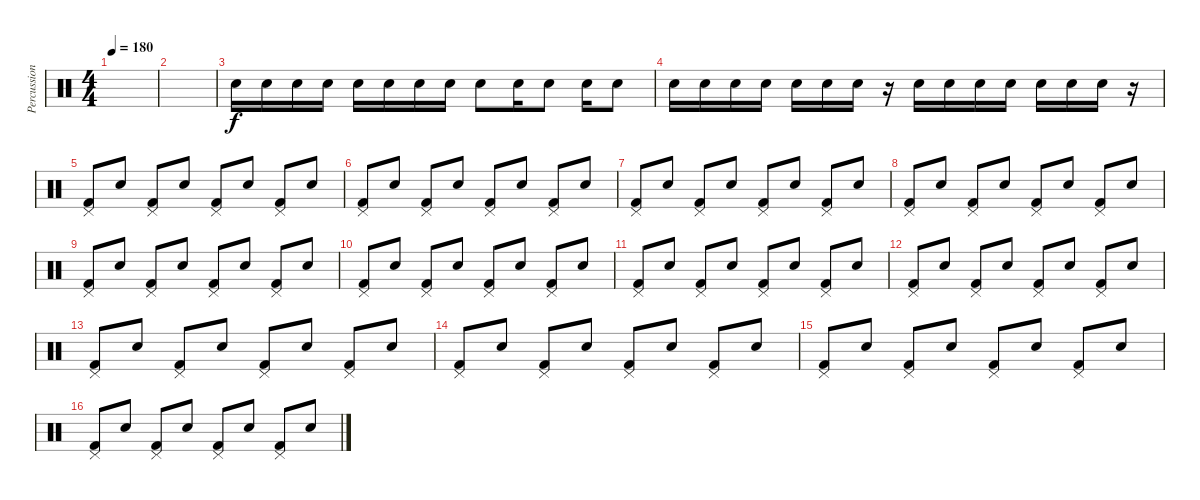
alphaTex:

\track ("Percussion" "Percussion") {instrument percussion}
\staff {score}
\articulation defaults
\ts (4 4)
\tempo 180
\clef neutral
\ks c
|
|
"Snare (hit) 2".16 "Snare (hit) 2".16 "Snare (hit) 2".16 "Snare (hit) 2".16 "Snare (hit) 2".16 "Snare (hit) 2".16 "Snare (hit) 2".16 "Snare (hit) 2".16 "Snare (hit) 2".8 "Snare (hit) 2".16 "Snare (hit) 2".8 "Snare (hit) 2".16 "Snare (hit) 2".8 |
"Snare (hit) 2".16 "Snare (hit) 2".16 "Snare (hit) 2".16 "Snare (hit) 2".16 "Snare (hit) 2".16 "Snare (hit) 2".16 "Snare (hit) 2".16 r.16 "Snare (hit) 2".16 "Snare (hit) 2".16 "Snare (hit) 2".16 "Snare (hit) 2".16 "Snare (hit) 2".16 "Snare (hit) 2".16 "Snare (hit) 2".16 r.16 |
("Pedal Hi-Hat (hit)" "Kick (hit) 2").8 "Snare (hit) 2".8 ("Pedal Hi-Hat (hit)" "Kick (hit) 2").8 "Snare (hit) 2".8 ("Pedal Hi-Hat (hit)" "Kick (hit) 2").8 "Snare (hit) 2".8 ("Pedal Hi-Hat (hit)" "Kick (hit) 2").8 "Snare (hit) 2".8 |
("Pedal Hi-Hat (hit)" "Kick (hit) 2").8 "Snare (hit) 2".8 ("Pedal Hi-Hat (hit)" "Kick (hit) 2").8 "Snare (hit) 2".8 ("Pedal Hi-Hat (hit)" "Kick (hit) 2").8 "Snare (hit) 2".8 ("Pedal Hi-Hat (hit)" "Kick (hit) 2").8 "Snare (hit) 2".8 |
("Pedal Hi-Hat (hit)" "Kick (hit) 2").8 "Snare (hit) 2".8 ("Pedal Hi-Hat (hit)" "Kick (hit) 2").8 "Snare (hit) 2".8 ("Pedal Hi-Hat (hit)" "Kick (hit) 2").8 "Snare (hit) 2".8 ("Pedal Hi-Hat (hit)" "Kick (hit) 2").8 "Snare (hit) 2".8 |
("Pedal Hi-Hat (hit)" "Kick (hit) 2").8 "Snare (hit) 2".8 ("Pedal Hi-Hat (hit)" "Kick (hit) 2").8 "Snare (hit) 2".8 ("Pedal Hi-Hat (hit)" "Kick (hit) 2").8 "Snare (hit) 2".8 ("Pedal Hi-Hat (hit)" "Kick (hit) 2").8 "Snare (hit) 2".8 |
("Pedal Hi-Hat (hit)" "Kick (hit) 2").8 "Snare (hit) 2".8 ("Pedal Hi-Hat (hit)" "Kick (hit) 2").8 "Snare (hit) 2".8 ("Pedal Hi-Hat (hit)" "Kick (hit) 2").8 "Snare (hit) 2".8 ("Pedal Hi-Hat (hit)" "Kick (hit) 2").8 "Snare (hit) 2".8 |
("Pedal Hi-Hat (hit)" "Kick (hit) 2").8 "Snare (hit) 2".8 ("Pedal Hi-Hat (hit)" "Kick (hit) 2").8 "Snare (hit) 2".8 ("Pedal Hi-Hat (hit)" "Kick (hit) 2").8 "Snare (hit) 2".8 ("Pedal Hi-Hat (hit)" "Kick (hit) 2").8 "Snare (hit) 2".8 |
("Pedal Hi-Hat (hit)" "Kick (hit) 2").8 "Snare (hit) 2".8 ("Pedal Hi-Hat (hit)" "Kick (hit) 2").8 "Snare (hit) 2".8 ("Pedal Hi-Hat (hit)" "Kick (hit) 2").8 "Snare (hit) 2".8 ("Pedal Hi-Hat (hit)" "Kick (hit) 2").8 "Snare (hit) 2".8 |
("Pedal Hi-Hat (hit)" "Kick (hit) 2").8 "Snare (hit) 2".8 ("Pedal Hi-Hat (hit)" "Kick (hit) 2").8 "Snare (hit) 2".8 ("Pedal Hi-Hat (hit)" "Kick (hit) 2").8 "Snare (hit) 2".8 ("Pedal Hi-Hat (hit)" "Kick (hit) 2").8 "Snare (hit) 2".8 |
("Pedal Hi-Hat (hit)" "Kick (hit) 2").8 "Snare (hit) 2".8 ("Pedal Hi-Hat (hit)" "Kick (hit) 2").8 "Snare (hit) 2".8 ("Pedal Hi-Hat (hit)" "Kick (hit) 2").8 "Snare (hit) 2".8 ("Pedal Hi-Hat (hit)" "Kick (hit) 2").8 "Snare (hit) 2".8 |
("Pedal Hi-Hat (hit)" "Kick (hit) 2").8 "Snare (hit) 2".8 ("Pedal Hi-Hat (hit)" "Kick (hit) 2").8 "Snare (hit) 2".8 ("Pedal Hi-Hat (hit)" "Kick (hit) 2").8 "Snare (hit) 2".8 ("Pedal Hi-Hat (hit)" "Kick (hit) 2").8 "Snare (hit) 2".8 |
("Pedal Hi-Hat (hit)" "Kick (hit) 2").8 "Snare (hit) 2".8 ("Pedal Hi-Hat (hit)" "Kick (hit) 2").8 "Snare (hit) 2".8 ("Pedal Hi-Hat (hit)" "Kick (hit) 2").8 "Snare (hit) 2".8 ("Pedal Hi-Hat (hit)" "Kick (hit) 2").8 "Snare (hit) 2".8 |
("Pedal Hi-Hat (hit)" "Kick (hit) 2").8 "Snare (hit) 2".8 ("Pedal Hi-Hat (hit)" "Kick (hit) 2").8 "Snare (hit) 2".8 ("Pedal Hi-Hat (hit)" "Kick (hit) 2").8 "Snare (hit) 2".8 ("Pedal Hi-Hat (hit)" "Kick (hit) 2").8 "Snare (hit) 2".8
